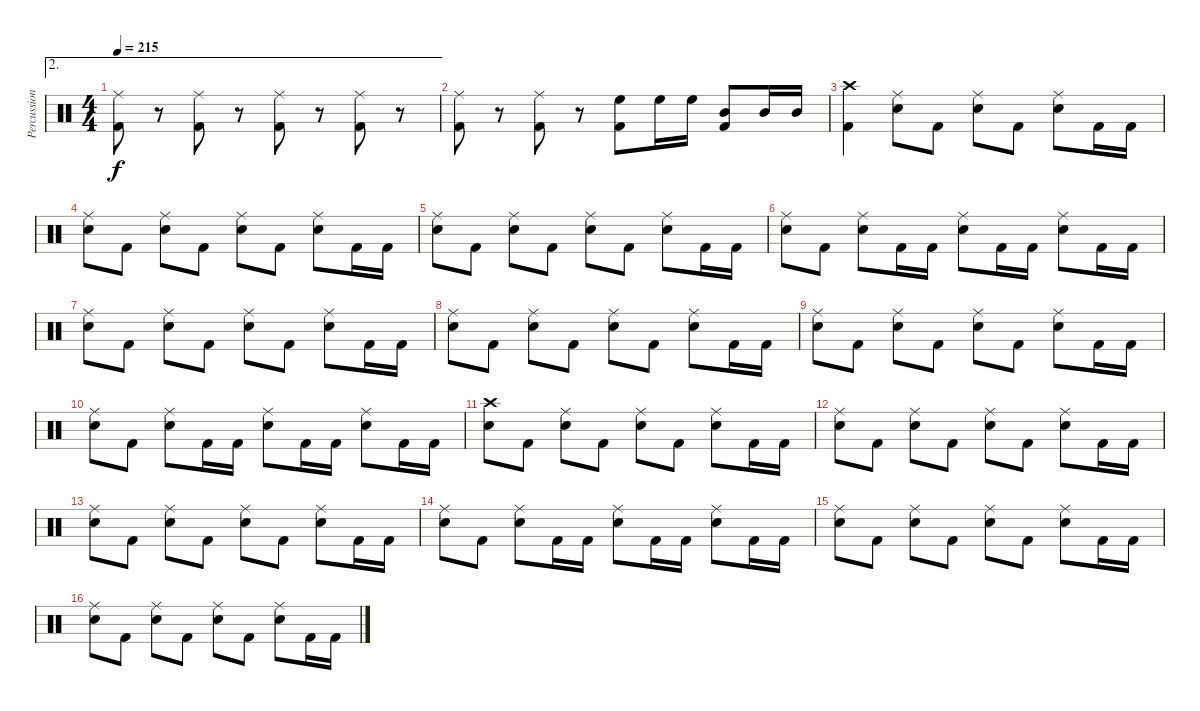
\track ("Percussion" "Percussion") {instrument percussion}
\staff {score}
\articulation defaults
\ae 2
\ts (4 4)
\tempo 215
\clef neutral
\ks aminor
("Ride (middle)" "Kick (hit) 2").8{dy f} r.8 ("Ride (middle)" "Kick (hit) 2").8 r.8 ("Ride (middle)" "Kick (hit) 2").8 r.8 ("Ride (middle)" "Kick (hit) 2").8 r.8 |
("Ride (middle)" "Kick (hit) 2").8 r.8 ("Ride (middle)" "Kick (hit) 2").8 r.8 ("High Floor Tom (hit)" "Kick (hit) 2").8 "High Floor Tom (hit)".16 "High Floor Tom (hit)".16 ("Mid Tom (hit)" "Kick (hit) 2").8 "Mid Tom (hit)".16 "Mid Tom (hit)".16 |
("Crash high (hit)" "Kick (hit) 2").4 ("Ride (middle)" "Snare (hit) 2").8 "Kick (hit) 2".8 ("Ride (middle)" "Snare (hit) 2").8 "Kick (hit) 2".8 ("Ride (middle)" "Snare (hit) 2").8 "Kick (hit) 2".16 "Kick (hit) 2".16 |
("Ride (middle)" "Snare (hit) 2").8 "Kick (hit) 2".8 ("Ride (middle)" "Snare (hit) 2").8 "Kick (hit) 2".8 ("Ride (middle)" "Snare (hit) 2").8 "Kick (hit) 2".8 ("Ride (middle)" "Snare (hit) 2").8 "Kick (hit) 2".16 "Kick (hit) 2".16 |
("Ride (middle)" "Snare (hit) 2").8 "Kick (hit) 2".8 ("Ride (middle)" "Snare (hit) 2").8 "Kick (hit) 2".8 ("Ride (middle)" "Snare (hit) 2").8 "Kick (hit) 2".8 ("Ride (middle)" "Snare (hit) 2").8 "Kick (hit) 2".16 "Kick (hit) 2".16 |
("Ride (middle)" "Snare (hit) 2").8 "Kick (hit) 2".8 ("Ride (middle)" "Snare (hit) 2").8 "Kick (hit) 2".16 "Kick (hit) 2".16 ("Ride (middle)" "Snare (hit) 2").8 "Kick (hit) 2".16 "Kick (hit) 2".16 ("Ride (middle)" "Snare (hit) 2").8 "Kick (hit) 2".16 "Kick (hit) 2".16 |
("Ride (middle)" "Snare (hit) 2").8 "Kick (hit) 2".8 ("Ride (middle)" "Snare (hit) 2").8 "Kick (hit) 2".8 ("Ride (middle)" "Snare (hit) 2").8 "Kick (hit) 2".8 ("Ride (middle)" "Snare (hit) 2").8 "Kick (hit) 2".16 "Kick (hit) 2".16 |
("Ride (middle)" "Snare (hit) 2").8 "Kick (hit) 2".8 ("Ride (middle)" "Snare (hit) 2").8 "Kick (hit) 2".8 ("Ride (middle)" "Snare (hit) 2").8 "Kick (hit) 2".8 ("Ride (middle)" "Snare (hit) 2").8 "Kick (hit) 2".16 "Kick (hit) 2".16 |
("Ride (middle)" "Snare (hit) 2").8 "Kick (hit) 2".8 ("Ride (middle)" "Snare (hit) 2").8 "Kick (hit) 2".8 ("Ride (middle)" "Snare (hit) 2").8 "Kick (hit) 2".8 ("Ride (middle)" "Snare (hit) 2").8 "Kick (hit) 2".16 "Kick (hit) 2".16 |
("Ride (middle)" "Snare (hit) 2").8 "Kick (hit) 2".8 ("Ride (middle)" "Snare (hit) 2").8 "Kick (hit) 2".16 "Kick (hit) 2".16 ("Ride (middle)" "Snare (hit) 2").8 "Kick (hit) 2".16 "Kick (hit) 2".16 ("Ride (middle)" "Snare (hit) 2").8 "Kick (hit) 2".16 "Kick (hit) 2".16 |
("Crash high (hit)" "Snare (hit) 2").8 "Kick (hit) 2".8 ("Ride (middle)" "Snare (hit) 2").8 "Kick (hit) 2".8 ("Ride (middle)" "Snare (hit) 2").8 "Kick (hit) 2".8 ("Ride (middle)" "Snare (hit) 2").8 "Kick (hit) 2".16 "Kick (hit) 2".16 |
("Ride (middle)" "Snare (hit) 2").8 "Kick (hit) 2".8 ("Ride (middle)" "Snare (hit) 2").8 "Kick (hit) 2".8 ("Ride (middle)" "Snare (hit) 2").8 "Kick (hit) 2".8 ("Ride (middle)" "Snare (hit) 2").8 "Kick (hit) 2".16 "Kick (hit) 2".16 |
("Ride (middle)" "Snare (hit) 2").8 "Kick (hit) 2".8 ("Ride (middle)" "Snare (hit) 2").8 "Kick (hit) 2".8 ("Ride (middle)" "Snare (hit) 2").8 "Kick (hit) 2".8 ("Ride (middle)" "Snare (hit) 2").8 "Kick (hit) 2".16 "Kick (hit) 2".16 |
("Ride (middle)" "Snare (hit) 2").8 "Kick (hit) 2".8 ("Ride (middle)" "Snare (hit) 2").8 "Kick (hit) 2".16 "Kick (hit) 2".16 ("Ride (middle)" "Snare (hit) 2").8 "Kick (hit) 2".16 "Kick (hit) 2".16 ("Ride (middle)" "Snare (hit) 2").8 "Kick (hit) 2".16 "Kick (hit) 2".16 |
("Ride (middle)" "Snare (hit) 2").8 "Kick (hit) 2".8 ("Ride (middle)" "Snare (hit) 2").8 "Kick (hit) 2".8 ("Ride (middle)" "Snare (hit) 2").8 "Kick (hit) 2".8 ("Ride (middle)" "Snare (hit) 2").8 "Kick (hit) 2".16 "Kick (hit) 2".16 |
("Ride (middle)" "Snare (hit) 2").8 "Kick (hit) 2".8 ("Ride (middle)" "Snare (hit) 2").8 "Kick (hit) 2".8 ("Ride (middle)" "Snare (hit) 2").8 "Kick (hit) 2".8 ("Ride (middle)" "Snare (hit) 2").8 "Kick (hit) 2".16 "Kick (hit) 2".16
